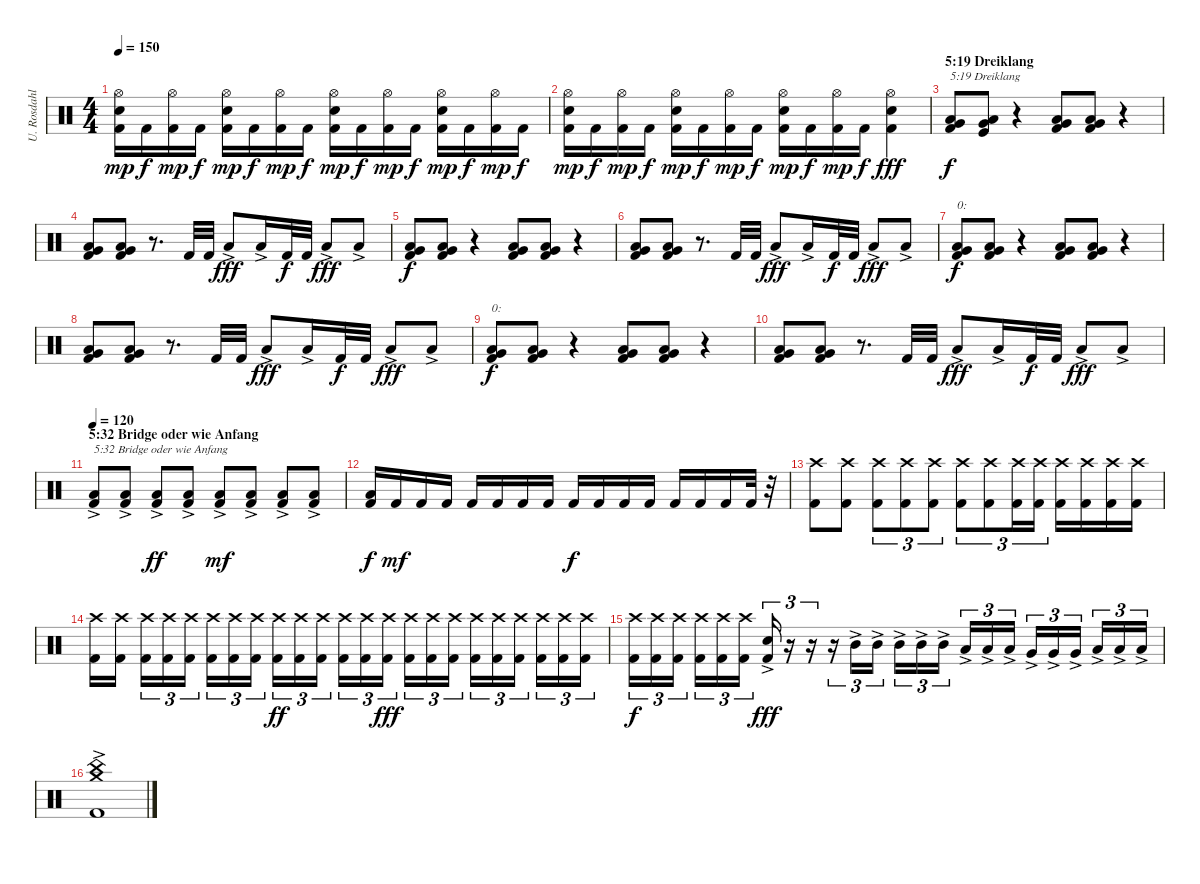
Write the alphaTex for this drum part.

\track ("U. Rosdahl" "U. Rosdahl") {instrument percussion}
\staff {score}
\articulation defaults
\ts (4 4)
\tempo 150
\clef neutral
\ks c
("Kick (hit) 2" "Electric Snare (hit)" "Hi-Hat (open)").16{dy mp} "Kick (hit) 2".16{dy f} ("Kick (hit) 2" "Hi-Hat (open)").16{dy mp} "Kick (hit) 2".16{dy f} ("Kick (hit) 2" "Electric Snare (hit)" "Hi-Hat (open)").16{dy mp} "Kick (hit) 2".16{dy f} ("Kick (hit) 2" "Hi-Hat (open)").16{dy mp} "Kick (hit) 2".16{dy f} ("Kick (hit) 2" "Electric Snare (hit)" "Hi-Hat (open)").16{dy mp} "Kick (hit) 2".16{dy f} ("Kick (hit) 2" "Hi-Hat (open)").16{dy mp} "Kick (hit) 2".16{dy f} ("Kick (hit) 2" "Electric Snare (hit)" "Hi-Hat (open)").16{dy mp} "Kick (hit) 2".16{dy f} ("Kick (hit) 2" "Hi-Hat (open)").16{dy mp} "Kick (hit) 2".16{dy f} |
("Kick (hit) 2" "Electric Snare (hit)" "Hi-Hat (open)").16{dy mp} "Kick (hit) 2".16{dy f} ("Kick (hit) 2" "Hi-Hat (open)").16{dy mp} "Kick (hit) 2".16{dy f} ("Kick (hit) 2" "Electric Snare (hit)" "Hi-Hat (open)").16{dy mp} "Kick (hit) 2".16{dy f} ("Kick (hit) 2" "Hi-Hat (open)").16{dy mp} "Kick (hit) 2".16{dy f} ("Kick (hit) 2" "Electric Snare (hit)" "Hi-Hat (open)").16{dy mp} "Kick (hit) 2".16{dy f} ("Kick (hit) 2" "Hi-Hat (open)").16{dy mp} "Kick (hit) 2".16{dy f} ("Kick (hit) 2" "Electric Snare (hit)" "Hi-Hat (open)").4{dy fff} |
\section ("" "5:19 Dreiklang")
("Kick (hit) 2" "Very Low Tom (hit)" "Low Tom (hit)").8{txt "5:19 Dreiklang" dy f} ("Kick (hit)" "Very Low Tom (hit)" "Low Tom (hit)").8 r.4 ("Kick (hit) 2" "Very Low Tom (hit)" "Low Tom (hit)").8 ("Kick (hit) 2" "Very Low Tom (hit)" "Low Tom (hit)").8 r.4 |
("Kick (hit) 2" "Very Low Tom (hit)" "Low Tom (hit)").8 ("Kick (hit) 2" "Very Low Tom (hit)" "Low Tom (hit)").8 r.8{d} "Kick (hit) 2".32 "Kick (hit) 2".32 "Low Tom (hit)"{ac}.8{dy fff} "Low Tom (hit)"{ac}.16 "Kick (hit) 2".32{dy f} "Kick (hit) 2".32 "Low Tom (hit)"{ac}.8{dy fff} "Low Tom (hit)"{ac}.8 |
("Kick (hit) 2" "Very Low Tom (hit)" "Low Tom (hit)").8{dy f} ("Kick (hit) 2" "Very Low Tom (hit)" "Low Tom (hit)").8 r.4 ("Kick (hit) 2" "Very Low Tom (hit)" "Low Tom (hit)").8 ("Kick (hit) 2" "Very Low Tom (hit)" "Low Tom (hit)").8 r.4 |
("Kick (hit) 2" "Very Low Tom (hit)" "Low Tom (hit)").8 ("Kick (hit) 2" "Very Low Tom (hit)" "Low Tom (hit)").8 r.8{d} "Kick (hit) 2".32 "Kick (hit) 2".32 "Low Tom (hit)"{ac}.8{dy fff} "Low Tom (hit)"{ac}.16 "Kick (hit) 2".32{dy f} "Kick (hit) 2".32 "Low Tom (hit)"{ac}.8{dy fff} "Low Tom (hit)"{ac}.8 |
("Kick (hit) 2" "Very Low Tom (hit)" "Low Tom (hit)").8{txt "0:" dy f} ("Kick (hit) 2" "Very Low Tom (hit)" "Low Tom (hit)").8 r.4 ("Kick (hit) 2" "Very Low Tom (hit)" "Low Tom (hit)").8 ("Kick (hit) 2" "Very Low Tom (hit)" "Low Tom (hit)").8 r.4 |
("Kick (hit) 2" "Very Low Tom (hit)" "Low Tom (hit)").8 ("Kick (hit) 2" "Very Low Tom (hit)" "Low Tom (hit)").8 r.8{d} "Kick (hit) 2".32 "Kick (hit) 2".32 "Low Tom (hit)"{ac}.8{dy fff} "Low Tom (hit)"{ac}.16 "Kick (hit) 2".32{dy f} "Kick (hit) 2".32 "Low Tom (hit)"{ac}.8{dy fff} "Low Tom (hit)"{ac}.8 |
("Kick (hit) 2" "Very Low Tom (hit)" "Low Tom (hit)").8{txt "0:" dy f} ("Kick (hit) 2" "Very Low Tom (hit)" "Low Tom (hit)").8 r.4 ("Kick (hit) 2" "Very Low Tom (hit)" "Low Tom (hit)").8 ("Kick (hit) 2" "Very Low Tom (hit)" "Low Tom (hit)").8 r.4 |
("Kick (hit) 2" "Very Low Tom (hit)" "Low Tom (hit)").8 ("Kick (hit) 2" "Very Low Tom (hit)" "Low Tom (hit)").8 r.8{d} "Kick (hit) 2".32 "Kick (hit) 2".32 "Low Tom (hit)"{ac}.8{dy fff} "Low Tom (hit)"{ac}.16 "Kick (hit) 2".32{dy f} "Kick (hit) 2".32 "Low Tom (hit)"{ac}.8{dy fff} "Low Tom (hit)"{ac}.8 |
\section ("" "5:32 Bridge oder wie Anfang")
\tempo 120
("Kick (hit) 2" "Low Tom (hit)"{ac}).8{txt "5:32 Bridge oder wie Anfang"} ("Kick (hit) 2" "Low Tom (hit)"{ac}).8 ("Kick (hit) 2" "Low Tom (hit)"{ac}).8{dy ff} ("Kick (hit) 2" "Low Tom (hit)"{ac}).8 ("Kick (hit) 2" "Low Tom (hit)"{ac}).8{dy mf} ("Kick (hit) 2" "Low Tom (hit)"{ac}).8 ("Kick (hit) 2" "Low Tom (hit)"{ac}).8 ("Kick (hit) 2" "Low Tom (hit)"{ac}).8 |
("Kick (hit) 2" "Low Tom (hit)").16{dy f} "Kick (hit) 2".16{dy mf} "Kick (hit) 2".16 "Kick (hit) 2".16 "Kick (hit) 2".16 "Kick (hit) 2".16 "Kick (hit) 2".16 "Kick (hit) 2".16 "Kick (hit) 2".16{dy f} "Kick (hit) 2".16 "Kick (hit) 2".16 "Kick (hit) 2".16 "Kick (hit) 2".16 "Kick (hit) 2".16 "Kick (hit) 2".16 "Kick (hit) 2".32 r.32{volume 7} |
("Kick (hit) 2" "Crash high (hit)").8{volume 13} ("Kick (hit) 2" "Crash high (hit)").8 ("Kick (hit) 2" "Crash high (hit)").8{tu (3 2)} ("Kick (hit) 2" "Crash high (hit)").8{tu (3 2)} ("Kick (hit) 2" "Crash high (hit)").8{tu (3 2)} ("Kick (hit) 2" "Crash high (hit)").8{tu (3 2)} ("Kick (hit) 2" "Crash high (hit)").8{tu (3 2)} ("Kick (hit) 2" "Crash high (hit)").16{tu (3 2)} ("Kick (hit) 2" "Crash high (hit)").16{tu (3 2)} ("Kick (hit) 2" "Crash high (hit)").16 ("Kick (hit) 2" "Crash high (hit)").16 ("Kick (hit) 2" "Crash high (hit)").16 ("Kick (hit) 2" "Crash high (hit)").16 |
("Kick (hit) 2" "Crash high (hit)").16 ("Kick (hit) 2" "Crash high (hit)").16 ("Kick (hit) 2" "Crash high (hit)").16{tu (3 2)} ("Kick (hit) 2" "Crash high (hit)").16{tu (3 2)} ("Kick (hit) 2" "Crash high (hit)").16{tu (3 2)} ("Kick (hit) 2" "Crash high (hit)").16{tu (3 2)} ("Kick (hit) 2" "Crash high (hit)").16{tu (3 2)} ("Kick (hit) 2" "Crash high (hit)").16{tu (3 2)} ("Kick (hit) 2" "Crash high (hit)").16{tu (3 2) dy ff} ("Kick (hit) 2" "Crash high (hit)").16{tu (3 2)} ("Kick (hit) 2" "Crash high (hit)").16{tu (3 2)} ("Kick (hit) 2" "Crash high (hit)").16{tu (3 2)} ("Kick (hit) 2" "Crash high (hit)").16{tu (3 2)} ("Kick (hit) 2" "Crash high (hit)").16{tu (3 2) dy fff} ("Kick (hit) 2" "Crash high (hit)").16{tu (3 2)} ("Kick (hit) 2" "Crash high (hit)").16{tu (3 2)} ("Kick (hit) 2" "Crash high (hit)").16{tu (3 2)} ("Kick (hit) 2" "Crash high (hit)").16{tu (3 2)} ("Kick (hit) 2" "Crash high (hit)").16{tu (3 2)} ("Kick (hit) 2" "Crash high (hit)").16{tu (3 2)} ("Kick (hit) 2" "Crash high (hit)").16{tu (3 2)} ("Kick (hit) 2" "Crash high (hit)").16{tu (3 2)} ("Kick (hit) 2" "Crash high (hit)").16{tu (3 2)} |
("Kick (hit) 2" "Crash high (hit)").16{tu (3 2) dy f} ("Kick (hit) 2" "Crash high (hit)").16{tu (3 2)} ("Kick (hit) 2" "Crash high (hit)").16{tu (3 2)} ("Kick (hit) 2" "Crash high (hit)").16{tu (3 2)} ("Kick (hit) 2" "Crash high (hit)").16{tu (3 2)} ("Kick (hit) 2" "Crash high (hit)").16{tu (3 2)} ("Kick (hit) 2" "Electric Snare (hit)"{ac}).16{tu (3 2) dy fff} r.16{tu (3 2)} r.16{tu (3 2)} r.16{tu (3 2)} "Mid Tom (hit)"{ac}.16{tu (3 2)} "Mid Tom (hit)"{ac}.16{tu (3 2)} "Mid Tom (hit)"{ac}.16{tu (3 2)} "Mid Tom (hit)"{ac}.16{tu (3 2)} "Mid Tom (hit)"{ac}.16{tu (3 2)} "Low Tom (hit)"{ac}.16{tu (3 2)} "Low Tom (hit)"{ac}.16{tu (3 2)} "Low Tom (hit)"{ac}.16{tu (3 2)} "Very Low Tom (hit)"{ac}.16{tu (3 2)} "Very Low Tom (hit)"{ac}.16{tu (3 2)} "Very Low Tom (hit)"{ac}.16{tu (3 2)} "Low Tom (hit)"{ac}.16{tu (3 2)} "Low Tom (hit)"{ac}.16{tu (3 2)} "Low Tom (hit)"{ac}.16{tu (3 2)} |
("Kick (hit) 2"{ac} "China (hit)"{ac} "Crash medium (hit)"{ac}).1
